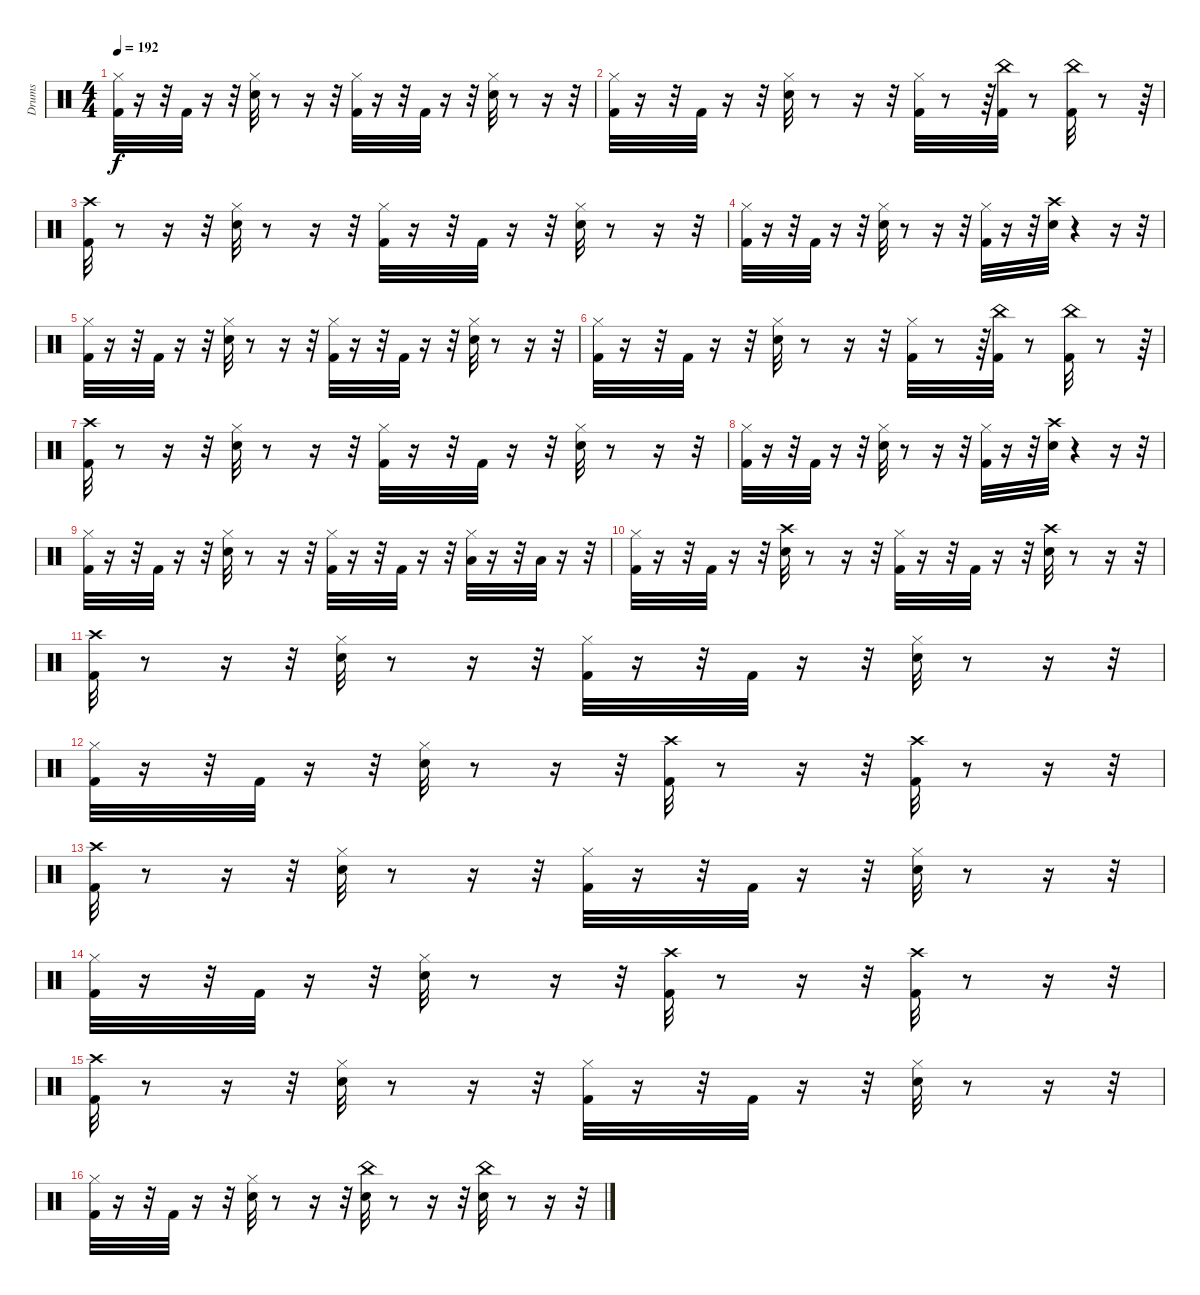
\track ("Drums" "Drums") {instrument percussion}
\staff {score}
\articulation defaults
\ts (4 4)
\tempo 192
\clef neutral
\ks c
("Hi-Hat (closed)" "Kick (hit) 2").32{dy f} r.16 r.32 "Kick (hit) 2".32 r.16 r.32 ("Snare (hit) 2" "Hi-Hat (closed)").32 r.8 r.16 r.32 ("Hi-Hat (closed)" "Kick (hit) 2").32 r.16 r.32 "Kick (hit) 2".32 r.16 r.32 ("Snare (hit) 2" "Hi-Hat (closed)").32 r.8 r.16 r.32 |
("Kick (hit) 2" "Hi-Hat (closed)").32 r.16 r.32 "Kick (hit) 2".32 r.16 r.32 ("Snare (hit) 2" "Hi-Hat (closed)").32 r.8 r.16 r.32 ("Kick (hit) 2" "Hi-Hat (closed)").32 r.8 r.64 ("China (hit)" "Kick (hit) 2").32 r.8 ("China (hit)" "Kick (hit) 2").32 r.8 r.64 |
("Kick (hit) 2" "Crash high (hit)").32 r.8 r.16 r.32 ("Hi-Hat (closed)" "Snare (hit) 2").32 r.8 r.16 r.32 ("Hi-Hat (closed)" "Kick (hit) 2").32 r.16 r.32 "Kick (hit) 2".32 r.16 r.32 ("Hi-Hat (closed)" "Snare (hit) 2").32 r.8 r.16 r.32 |
("Hi-Hat (closed)" "Kick (hit) 2").32 r.16 r.32 "Kick (hit) 2".32 r.16 r.32 ("Snare (hit) 2" "Hi-Hat (closed)").32 r.8 r.16 r.32 ("Hi-Hat (closed)" "Kick (hit) 2").32 r.16 r.32 ("Snare (hit) 2" "Crash high (hit)").32 r.4 r.16 r.32 |
("Kick (hit) 2" "Hi-Hat (closed)").32 r.16 r.32 "Kick (hit) 2".32 r.16 r.32 ("Snare (hit) 2" "Hi-Hat (closed)").32 r.8 r.16 r.32 ("Kick (hit) 2" "Hi-Hat (closed)").32 r.16 r.32 "Kick (hit) 2".32 r.16 r.32 ("Snare (hit) 2" "Hi-Hat (closed)").32 r.8 r.16 r.32 |
("Kick (hit) 2" "Hi-Hat (closed)").32 r.16 r.32 "Kick (hit) 2".32 r.16 r.32 ("Snare (hit) 2" "Hi-Hat (closed)").32 r.8 r.16 r.32 ("Kick (hit) 2" "Hi-Hat (closed)").32 r.8 r.64 ("China (hit)" "Kick (hit) 2").32 r.8 ("China (hit)" "Kick (hit) 2").32 r.8 r.64 |
("Kick (hit) 2" "Crash high (hit)").32 r.8 r.16 r.32 ("Hi-Hat (closed)" "Snare (hit) 2").32 r.8 r.16 r.32 ("Kick (hit) 2" "Hi-Hat (closed)").32 r.16 r.32 "Kick (hit) 2".32 r.16 r.32 ("Hi-Hat (closed)" "Snare (hit) 2").32 r.8 r.16 r.32 |
("Hi-Hat (closed)" "Kick (hit) 2").32 r.16 r.32 "Kick (hit) 2".32 r.16 r.32 ("Snare (hit) 2" "Hi-Hat (closed)").32 r.8 r.16 r.32 ("Hi-Hat (closed)" "Kick (hit) 2").32 r.16 r.32 ("Crash high (hit)" "Snare (hit) 2").32 r.4 r.16 r.32 |
("Hi-Hat (closed)" "Kick (hit) 2").32 r.16 r.32 "Kick (hit) 2".32 r.16 r.32 ("Snare (hit) 2" "Hi-Hat (closed)").32 r.8 r.16 r.32 ("Hi-Hat (closed)" "Kick (hit) 2").32 r.16 r.32 "Kick (hit) 2".32 r.16 r.32 ("Low Tom (hit)" "Hi-Hat (closed)").32 r.16 r.32 "Low Tom (hit)".32 r.16 r.32 |
("Hi-Hat (closed)" "Kick (hit) 2").32 r.16 r.32 "Kick (hit) 2".32 r.16 r.32 ("Crash high (hit)" "Snare (hit) 2").32 r.8 r.16 r.32 ("Hi-Hat (closed)" "Kick (hit) 2").32 r.16 r.32 "Kick (hit) 2".32 r.16 r.32 ("Crash high (hit)" "Snare (hit) 2").32 r.8 r.16 r.32 |
("Kick (hit) 2" "Crash high (hit)").32 r.8 r.16 r.32 ("Hi-Hat (closed)" "Snare (hit) 2").32 r.8 r.16 r.32 ("Hi-Hat (closed)" "Kick (hit) 2").32 r.16 r.32 "Kick (hit) 2".32 r.16 r.32 ("Hi-Hat (closed)" "Snare (hit) 2").32 r.8 r.16 r.32 |
("Hi-Hat (closed)" "Kick (hit) 2").32 r.16 r.32 "Kick (hit) 2".32 r.16 r.32 ("Snare (hit) 2" "Hi-Hat (closed)").32 r.8 r.16 r.32 ("Crash high (hit)" "Kick (hit) 2").32 r.8 r.16 r.32 ("Crash high (hit)" "Kick (hit) 2").32 r.8 r.16 r.32 |
("Kick (hit) 2" "Crash high (hit)").32 r.8 r.16 r.32 ("Hi-Hat (closed)" "Snare (hit) 2").32 r.8 r.16 r.32 ("Kick (hit) 2" "Hi-Hat (closed)").32 r.16 r.32 "Kick (hit) 2".32 r.16 r.32 ("Snare (hit) 2" "Hi-Hat (closed)").32 r.8 r.16 r.32 |
("Kick (hit) 2" "Hi-Hat (closed)").32 r.16 r.32 "Kick (hit) 2".32 r.16 r.32 ("Snare (hit) 2" "Hi-Hat (closed)").32 r.8 r.16 r.32 ("Crash high (hit)" "Kick (hit) 2").32 r.8 r.16 r.32 ("Crash high (hit)" "Kick (hit) 2").32 r.8 r.16 r.32 |
("Kick (hit) 2" "Crash high (hit)").32 r.8 r.16 r.32 ("Hi-Hat (closed)" "Snare (hit) 2").32 r.8 r.16 r.32 ("Hi-Hat (closed)" "Kick (hit) 2").32 r.16 r.32 "Kick (hit) 2".32 r.16 r.32 ("Hi-Hat (closed)" "Snare (hit) 2").32 r.8 r.16 r.32 |
("Kick (hit) 2" "Hi-Hat (closed)").32 r.16 r.32 "Kick (hit) 2".32 r.16 r.32 ("Snare (hit) 2" "Hi-Hat (closed)").32 r.8 r.16 r.32 ("China (hit)" "Snare (hit) 2").32 r.8 r.16 r.32 ("China (hit)" "Snare (hit) 2").32 r.8 r.16 r.32
